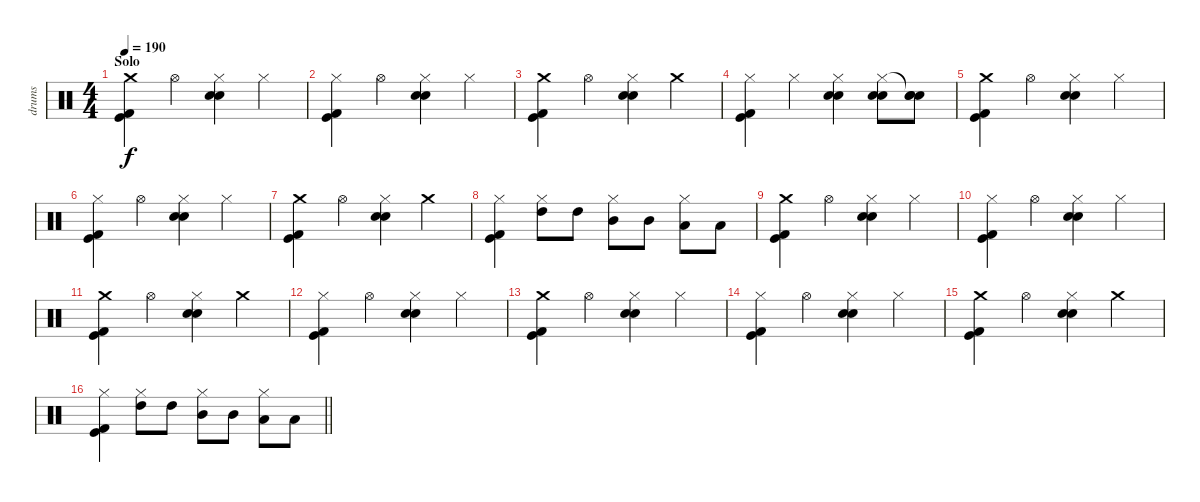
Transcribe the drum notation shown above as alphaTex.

\track ("drums" "drums") {instrument percussion}
\staff {score}
\articulation defaults
\ts (4 4)
\section ("" "Solo")
\tempo 190
\clef neutral
\ks c
("Crash medium (hit)" "Kick (hit) 2" "Kick (hit)").4{dy f} "Hi-Hat (open)".4 ("Hi-Hat (closed)" "Snare (hit) 2" "Electric Snare (hit)").4 "Hi-Hat (closed)".4 |
("Hi-Hat (closed)" "Kick (hit) 2" "Kick (hit)").4 "Hi-Hat (open)".4 ("Hi-Hat (closed)" "Snare (hit) 2" "Electric Snare (hit)").4 "Hi-Hat (closed)".4 |
("Crash medium (hit)" "Kick (hit) 2" "Kick (hit)").4 "Hi-Hat (open)".4 ("Hi-Hat (closed)" "Snare (hit) 2" "Electric Snare (hit)").4 "Crash medium (hit)".4 |
("Hi-Hat (closed)" "Kick (hit) 2" "Kick (hit)").4 "Hi-Hat (closed)".4 ("Hi-Hat (closed)" "Snare (hit) 2" "Electric Snare (hit)").4 ("Hi-Hat (closed)" "Snare (hit) 2" "Electric Snare (hit)").8 ("Snare (hit)"{t} "Snare (hit) 2" "Electric Snare (hit)").8 |
("Crash medium (hit)" "Kick (hit) 2" "Kick (hit)").4 "Hi-Hat (open)".4 ("Hi-Hat (closed)" "Snare (hit) 2" "Electric Snare (hit)").4 "Hi-Hat (closed)".4 |
("Hi-Hat (closed)" "Kick (hit) 2" "Kick (hit)").4 "Hi-Hat (open)".4 ("Hi-Hat (closed)" "Snare (hit) 2" "Electric Snare (hit)").4 "Hi-Hat (closed)".4 |
("Crash medium (hit)" "Kick (hit) 2" "Kick (hit)").4 "Hi-Hat (open)".4 ("Hi-Hat (closed)" "Snare (hit) 2" "Electric Snare (hit)").4 "Crash medium (hit)".4 |
("Hi-Hat (closed)" "Kick (hit) 2" "Kick (hit)").4 ("Hi-Hat (closed)" "High Tom (hit)").8 "High Tom (hit)".8 ("Hi-Hat (closed)" "Mid Tom (hit)").8 "Mid Tom (hit)".8 ("Hi-Hat (closed)" "Low Tom (hit)").8 "Low Tom (hit)".8 |
("Crash medium (hit)" "Kick (hit) 2" "Kick (hit)").4 "Hi-Hat (open)".4 ("Hi-Hat (closed)" "Snare (hit) 2" "Electric Snare (hit)").4 "Hi-Hat (closed)".4 |
("Hi-Hat (closed)" "Kick (hit) 2" "Kick (hit)").4 "Hi-Hat (open)".4 ("Hi-Hat (closed)" "Snare (hit) 2" "Electric Snare (hit)").4 "Hi-Hat (closed)".4 |
("Crash medium (hit)" "Kick (hit) 2" "Kick (hit)").4 "Hi-Hat (open)".4 ("Hi-Hat (closed)" "Snare (hit) 2" "Electric Snare (hit)").4 "Crash medium (hit)".4 |
("Hi-Hat (closed)" "Kick (hit) 2" "Kick (hit)").4 "Hi-Hat (open)".4 ("Hi-Hat (closed)" "Snare (hit) 2" "Electric Snare (hit)").4 "Hi-Hat (closed)".4 |
("Crash medium (hit)" "Kick (hit) 2" "Kick (hit)").4 "Hi-Hat (open)".4 ("Hi-Hat (closed)" "Snare (hit) 2" "Electric Snare (hit)").4 "Hi-Hat (closed)".4 |
("Hi-Hat (closed)" "Kick (hit) 2" "Kick (hit)").4 "Hi-Hat (open)".4 ("Hi-Hat (closed)" "Snare (hit) 2" "Electric Snare (hit)").4 "Hi-Hat (closed)".4 |
("Crash medium (hit)" "Kick (hit) 2" "Kick (hit)").4 "Hi-Hat (open)".4 ("Hi-Hat (closed)" "Snare (hit) 2" "Electric Snare (hit)").4 "Crash medium (hit)".4 |
\barLineRight lightlight
("Hi-Hat (closed)" "Kick (hit) 2" "Kick (hit)").4 ("Hi-Hat (closed)" "High Tom (hit)").8 "High Tom (hit)".8 ("Hi-Hat (closed)" "Mid Tom (hit)").8 "Mid Tom (hit)".8 ("Hi-Hat (closed)" "Low Tom (hit)").8 "Low Tom (hit)".8
